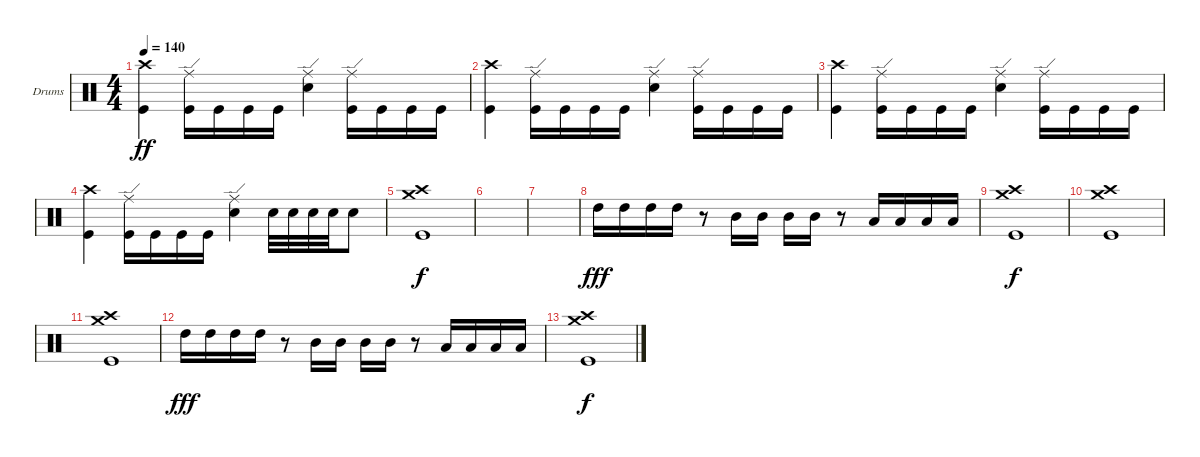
\defaultSystemsLayout 4
\bracketExtendMode groupsimilarinstruments
\firstSystemTrackNameOrientation horizontal
\otherSystemsTrackNameOrientation horizontal
\track ("Drumkit" "Drums") {instrument percussion}
\staff {score}
\articulation defaults
\ts (4 4)
\tempo 140
\clef neutral
\ks c
("Kick (hit)" "Crash high (hit)").4{dy ff} ("Kick (hit)" "Ride (edge)").16 "Kick (hit)".16 "Kick (hit)".16 "Kick (hit)".16 ("Snare (hit) 2" "Ride (edge)").4 ("Kick (hit)" "Ride (edge)").16 "Kick (hit)".16 "Kick (hit)".16 "Kick (hit)".16 |
("Kick (hit)" "Crash high (hit)").4 ("Kick (hit)" "Ride (edge)").16 "Kick (hit)".16 "Kick (hit)".16 "Kick (hit)".16 ("Snare (hit) 2" "Ride (edge)").4 ("Kick (hit)" "Ride (edge)").16 "Kick (hit)".16 "Kick (hit)".16 "Kick (hit)".16 |
("Kick (hit)" "Crash high (hit)").4 ("Kick (hit)" "Ride (edge)").16 "Kick (hit)".16 "Kick (hit)".16 "Kick (hit)".16 ("Snare (hit) 2" "Ride (edge)").4 ("Kick (hit)" "Ride (edge)").16 "Kick (hit)".16 "Kick (hit)".16 "Kick (hit)".16 |
("Kick (hit)" "Crash high (hit)").4 ("Kick (hit)" "Ride (edge)").16 "Kick (hit)".16 "Kick (hit)".16 "Kick (hit)".16 ("Snare (hit) 2" "Ride (edge)").4 "Snare (hit) 2".32 "Snare (hit) 2".32 "Snare (hit) 2".32 "Snare (hit) 2".32 "Snare (hit) 2".8 |
("Kick (hit)" "Crash high (hit)" "Crash medium (hit)").1{dy f} |
|
|
"High Tom (hit)".16{dy fff} "High Tom (hit)".16 "High Tom (hit)".16 "High Tom (hit)".16 r.8 "Mid Tom (hit)".16 "Mid Tom (hit)".16 "Mid Tom (hit)".16 "Mid Tom (hit)".16 r.8 "Low Tom (hit)".16 "Low Tom (hit)".16 "Low Tom (hit)".16 "Low Tom (hit)".16 |
("Kick (hit)" "Crash high (hit)" "Crash medium (hit)").1{dy f} |
("Kick (hit)" "Crash high (hit)" "Crash medium (hit)").1 |
("Kick (hit)" "Crash high (hit)" "Crash medium (hit)").1 |
"High Tom (hit)".16{dy fff} "High Tom (hit)".16 "High Tom (hit)".16 "High Tom (hit)".16 r.8 "Mid Tom (hit)".16 "Mid Tom (hit)".16 "Mid Tom (hit)".16 "Mid Tom (hit)".16 r.8 "Low Tom (hit)".16 "Low Tom (hit)".16 "Low Tom (hit)".16 "Low Tom (hit)".16 |
("Kick (hit)" "Crash high (hit)" "Crash medium (hit)").1{dy f}
